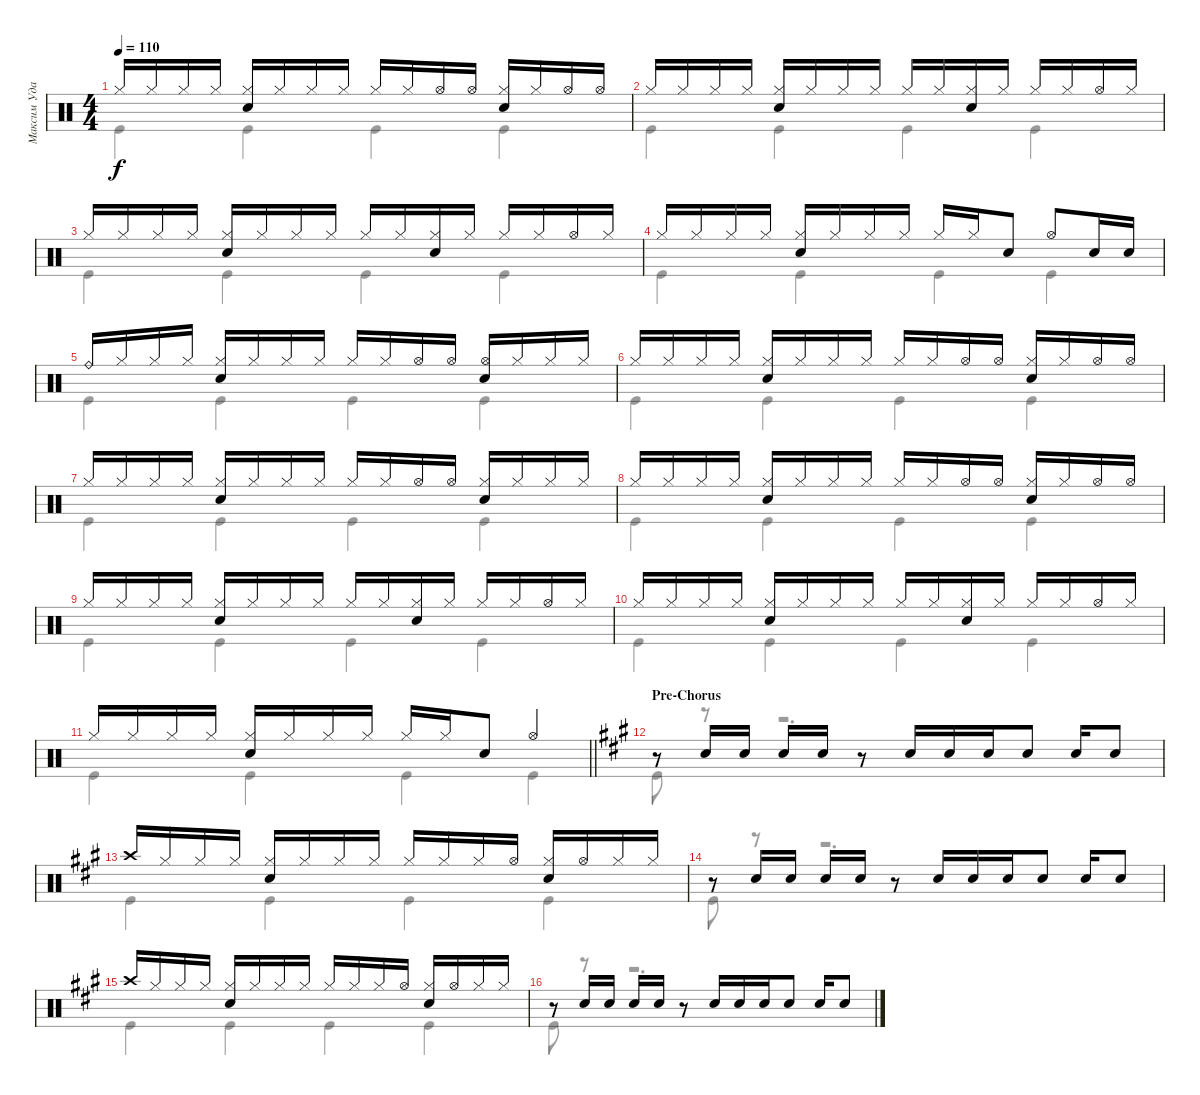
\track ("Максим Удалов" "Максим Уда") {instrument percussion}
\staff {score}
\articulation defaults
\voice
\ts (4 4)
\tempo 110
\clef neutral
\ks c "Hi-Hat (closed)".16{dy f} "Hi-Hat (closed)".16 "Hi-Hat (closed)".16 "Hi-Hat (closed)".16
("Hi-Hat (closed)" "Snare (hit) 2").16 "Hi-Hat (closed)".16 "Hi-Hat (closed)".16 "Hi-Hat (closed)".16 "Hi-Hat (closed)".16 "Hi-Hat (closed)".16 "Hi-Hat (open)".16 "Hi-Hat (open)".16 ("Snare (hit) 2" "Hi-Hat (closed)").16 "Hi-Hat (closed)".16 "Hi-Hat (open)".16 "Hi-Hat (open)".16 |
"Hi-Hat (closed)".16 "Hi-Hat (closed)".16 "Hi-Hat (closed)".16 "Hi-Hat (closed)".16 ("Hi-Hat (closed)" "Snare (hit) 2").16 "Hi-Hat (closed)".16 "Hi-Hat (closed)".16 "Hi-Hat (closed)".16 "Hi-Hat (closed)".16 "Hi-Hat (closed)".16 ("Hi-Hat (closed)" "Snare (hit) 2").16 "Hi-Hat (closed)".16 "Hi-Hat (closed)".16 "Hi-Hat (closed)".16 "Hi-Hat (open)".16 "Hi-Hat (closed)".16 |
"Hi-Hat (closed)".16 "Hi-Hat (closed)".16 "Hi-Hat (closed)".16 "Hi-Hat (closed)".16 ("Hi-Hat (closed)" "Snare (hit) 2").16 "Hi-Hat (closed)".16 "Hi-Hat (closed)".16 "Hi-Hat (closed)".16 "Hi-Hat (closed)".16 "Hi-Hat (closed)".16 ("Hi-Hat (closed)" "Snare (hit) 2").16 "Hi-Hat (closed)".16 "Hi-Hat (closed)".16 "Hi-Hat (closed)".16 "Hi-Hat (open)".16 "Hi-Hat (closed)".16 |
"Hi-Hat (closed)".16 "Hi-Hat (closed)".16 "Hi-Hat (closed)".16 "Hi-Hat (closed)".16 ("Hi-Hat (closed)" "Snare (hit) 2").16 "Hi-Hat (closed)".16 "Hi-Hat (closed)".16 "Hi-Hat (closed)".16 "Hi-Hat (closed)".16 "Hi-Hat (closed)".16 "Snare (hit) 2".8 "Hi-Hat (open)".8 "Snare (hit) 2".16 "Snare (hit) 2".16 |
"Ride (bell)".16 "Hi-Hat (closed)".16 "Hi-Hat (closed)".16 "Hi-Hat (closed)".16 ("Hi-Hat (closed)" "Snare (hit) 2").16 "Hi-Hat (closed)".16 "Hi-Hat (closed)".16 "Hi-Hat (closed)".16 "Hi-Hat (closed)".16 "Hi-Hat (closed)".16 "Hi-Hat (open)".16 "Hi-Hat (open)".16 ("Hi-Hat (open)" "Snare (hit) 2").16 "Hi-Hat (closed)".16 "Hi-Hat (closed)".16 "Hi-Hat (closed)".16 |
"Hi-Hat (closed)".16 "Hi-Hat (closed)".16 "Hi-Hat (closed)".16 "Hi-Hat (closed)".16 ("Hi-Hat (closed)" "Snare (hit) 2").16 "Hi-Hat (closed)".16 "Hi-Hat (closed)".16 "Hi-Hat (closed)".16 "Hi-Hat (closed)".16 "Hi-Hat (closed)".16 "Hi-Hat (open)".16 "Hi-Hat (open)".16 ("Snare (hit) 2" "Hi-Hat (closed)").16 "Hi-Hat (closed)".16 "Hi-Hat (open)".16 "Hi-Hat (open)".16 |
"Hi-Hat (closed)".16 "Hi-Hat (closed)".16 "Hi-Hat (closed)".16 "Hi-Hat (closed)".16 ("Hi-Hat (closed)" "Snare (hit) 2").16 "Hi-Hat (closed)".16 "Hi-Hat (closed)".16 "Hi-Hat (closed)".16 "Hi-Hat (closed)".16 "Hi-Hat (closed)".16 "Hi-Hat (open)".16 "Hi-Hat (open)".16 ("Snare (hit) 2" "Hi-Hat (closed)").16 "Hi-Hat (closed)".16 "Hi-Hat (closed)".16 "Hi-Hat (closed)".16 |
"Hi-Hat (closed)".16 "Hi-Hat (closed)".16 "Hi-Hat (closed)".16 "Hi-Hat (closed)".16 ("Hi-Hat (closed)" "Snare (hit) 2").16 "Hi-Hat (closed)".16 "Hi-Hat (closed)".16 "Hi-Hat (closed)".16 "Hi-Hat (closed)".16 "Hi-Hat (closed)".16 "Hi-Hat (open)".16 "Hi-Hat (open)".16 ("Snare (hit) 2" "Hi-Hat (closed)").16 "Hi-Hat (closed)".16 "Hi-Hat (open)".16 "Hi-Hat (open)".16 |
"Hi-Hat (closed)".16 "Hi-Hat (closed)".16 "Hi-Hat (closed)".16 "Hi-Hat (closed)".16 ("Hi-Hat (closed)" "Snare (hit) 2").16 "Hi-Hat (closed)".16 "Hi-Hat (closed)".16 "Hi-Hat (closed)".16 "Hi-Hat (closed)".16 "Hi-Hat (closed)".16 ("Hi-Hat (closed)" "Snare (hit) 2").16 "Hi-Hat (closed)".16 "Hi-Hat (closed)".16 "Hi-Hat (closed)".16 "Hi-Hat (open)".16 "Hi-Hat (closed)".16 |
"Hi-Hat (closed)".16 "Hi-Hat (closed)".16 "Hi-Hat (closed)".16 "Hi-Hat (closed)".16 ("Hi-Hat (closed)" "Snare (hit) 2").16 "Hi-Hat (closed)".16 "Hi-Hat (closed)".16 "Hi-Hat (closed)".16 "Hi-Hat (closed)".16 "Hi-Hat (closed)".16 ("Hi-Hat (closed)" "Snare (hit) 2").16 "Hi-Hat (closed)".16 "Hi-Hat (closed)".16 "Hi-Hat (closed)".16 "Hi-Hat (open)".16 "Hi-Hat (closed)".16 |
\barLineRight lightlight "Hi-Hat (closed)".16 "Hi-Hat (closed)".16 "Hi-Hat (closed)".16 "Hi-Hat (closed)".16
("Hi-Hat (closed)" "Snare (hit) 2").16 "Hi-Hat (closed)".16 "Hi-Hat (closed)".16 "Hi-Hat (closed)".16 "Hi-Hat (closed)".16 "Hi-Hat (closed)".16 "Snare (hit) 2".8 "Hi-Hat (open)".4 |
\section ("" "Pre-Chorus")
\ks a
r.8 "Snare (hit) 2".16 "Snare (hit) 2".16 "Snare (hit) 2".16 "Snare (hit) 2".16 r.8 "Snare (hit) 2".16 "Snare (hit) 2".16 "Snare (hit) 2".16 "Snare (hit) 2".8 "Snare (hit) 2".16 "Snare (hit) 2".8 |
"Crash high (hit)".16 "Hi-Hat (closed)".16 "Hi-Hat (closed)".16 "Hi-Hat (closed)".16 ("Hi-Hat (closed)" "Snare (hit) 2").16 "Hi-Hat (closed)".16 "Hi-Hat (closed)".16 "Hi-Hat (closed)".16 "Hi-Hat (closed)".16 "Hi-Hat (closed)".16 "Hi-Hat (closed)".16 "Hi-Hat (open)".16 ("Hi-Hat (closed)" "Snare (hit) 2").16 "Hi-Hat (open)".16 "Hi-Hat (closed)".16 "Hi-Hat (closed)".16 |
r.8 "Snare (hit) 2".16 "Snare (hit) 2".16 "Snare (hit) 2".16 "Snare (hit) 2".16 r.8 "Snare (hit) 2".16 "Snare (hit) 2".16 "Snare (hit) 2".16 "Snare (hit) 2".8 "Snare (hit) 2".16 "Snare (hit) 2".8 |
"Crash high (hit)".16 "Hi-Hat (closed)".16 "Hi-Hat (closed)".16 "Hi-Hat (closed)".16 ("Hi-Hat (closed)" "Snare (hit) 2").16 "Hi-Hat (closed)".16 "Hi-Hat (closed)".16 "Hi-Hat (closed)".16 "Hi-Hat (closed)".16 "Hi-Hat (closed)".16 "Hi-Hat (closed)".16 "Hi-Hat (open)".16 ("Hi-Hat (closed)" "Snare (hit) 2").16 "Hi-Hat (open)".16 "Hi-Hat (closed)".16 "Hi-Hat (closed)".16 |
r.8 "Snare (hit) 2".16 "Snare (hit) 2".16 "Snare (hit) 2".16 "Snare (hit) 2".16 r.8 "Snare (hit) 2".16 "Snare (hit) 2".16 "Snare (hit) 2".16 "Snare (hit) 2".8 "Snare (hit) 2".16 "Snare (hit) 2".8
\voice
\clef neutral
\ottava regular
\simile none
\ks c "Kick (hit)".4{dy f} "Kick (hit)".4 "Kick (hit)".4 "Kick (hit)".4
|
"Kick (hit)".4 "Kick (hit)".4 "Kick (hit)".4 "Kick (hit)".4 |
"Kick (hit)".4 "Kick (hit)".4 "Kick (hit)".4 "Kick (hit)".4 |
"Kick (hit)".4 "Kick (hit)".4 "Kick (hit)".4 "Kick (hit)".4 |
"Kick (hit)".4 "Kick (hit)".4 "Kick (hit)".4 "Kick (hit)".4 |
"Kick (hit)".4 "Kick (hit)".4 "Kick (hit)".4 "Kick (hit)".4 |
"Kick (hit)".4 "Kick (hit)".4 "Kick (hit)".4 "Kick (hit)".4 |
"Kick (hit)".4 "Kick (hit)".4 "Kick (hit)".4 "Kick (hit)".4 |
"Kick (hit)".4 "Kick (hit)".4 "Kick (hit)".4 "Kick (hit)".4 |
"Kick (hit)".4 "Kick (hit)".4 "Kick (hit)".4 "Kick (hit)".4 |
\barLineRight lightlight "Kick (hit)".4 "Kick (hit)".4 "Kick (hit)".4 "Kick (hit)".4
|
\ks a "Kick (hit)".8
r.8 r.2{d} |
"Kick (hit)".4 "Kick (hit)".4 "Kick (hit)".4 "Kick (hit)".4 |
"Kick (hit)".8 r.8 r.2{d} |
"Kick (hit)".4 "Kick (hit)".4 "Kick (hit)".4 "Kick (hit)".4 |
"Kick (hit)".8 r.8 r.2{d}
